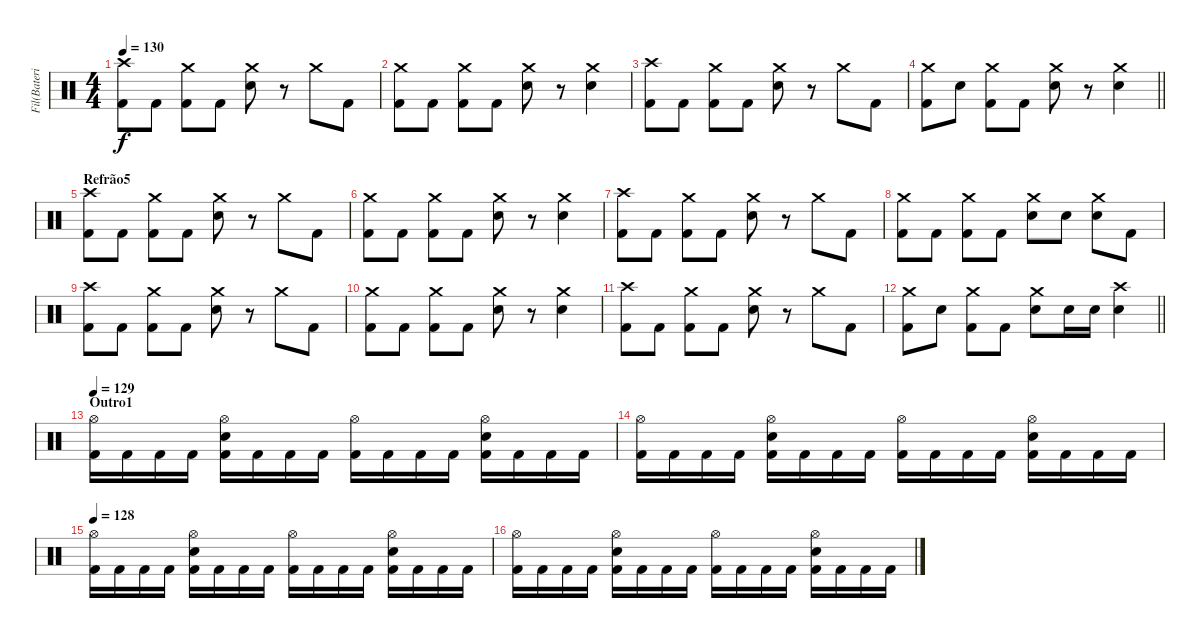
\track ("Fil(Bateria)" "Fil(Bateri") {instrument percussion}
\staff {score}
\articulation defaults
\ts (4 4)
\tempo 130
\clef neutral
\ks c
("Crash high (hit)" "Kick (hit) 2").8{dy f} "Kick (hit) 2".8 ("Crash medium (hit)" "Kick (hit) 2").8 "Kick (hit) 2".8 ("Crash medium (hit)" "Electric Snare (hit)").8 r.8 "Crash medium (hit)".8 "Kick (hit) 2".8 |
("Crash medium (hit)" "Kick (hit) 2").8 "Kick (hit) 2".8 ("Crash medium (hit)" "Kick (hit) 2").8 "Kick (hit) 2".8 ("Crash medium (hit)" "Electric Snare (hit)").8 r.8 ("Crash medium (hit)" "Electric Snare (hit)").4 |
("Crash high (hit)" "Kick (hit) 2").8 "Kick (hit) 2".8 ("Crash medium (hit)" "Kick (hit) 2").8 "Kick (hit) 2".8 ("Crash medium (hit)" "Electric Snare (hit)").8 r.8 "Crash medium (hit)".8 "Kick (hit) 2".8 |
\barLineRight lightlight
("Crash medium (hit)" "Kick (hit) 2").8 "Electric Snare (hit)".8 ("Crash medium (hit)" "Kick (hit) 2").8 "Kick (hit) 2".8 ("Crash medium (hit)" "Electric Snare (hit)").8 r.8 ("Crash medium (hit)" "Electric Snare (hit)").4 |
\section ("" "Refrão5")
("Crash high (hit)" "Kick (hit) 2").8 "Kick (hit) 2".8 ("Crash medium (hit)" "Kick (hit) 2").8 "Kick (hit) 2".8 ("Crash medium (hit)" "Electric Snare (hit)").8 r.8 "Crash medium (hit)".8 "Kick (hit) 2".8 |
("Crash medium (hit)" "Kick (hit) 2").8 "Kick (hit) 2".8 ("Crash medium (hit)" "Kick (hit) 2").8 "Kick (hit) 2".8 ("Crash medium (hit)" "Electric Snare (hit)").8 r.8 ("Crash medium (hit)" "Electric Snare (hit)").4 |
("Crash high (hit)" "Kick (hit) 2").8 "Kick (hit) 2".8 ("Crash medium (hit)" "Kick (hit) 2").8 "Kick (hit) 2".8 ("Crash medium (hit)" "Electric Snare (hit)").8 r.8 "Crash medium (hit)".8 "Kick (hit) 2".8 |
("Crash medium (hit)" "Kick (hit) 2").8 "Kick (hit) 2".8 ("Crash medium (hit)" "Kick (hit) 2").8 "Kick (hit) 2".8 ("Crash medium (hit)" "Electric Snare (hit)").8 "Electric Snare (hit)".8 ("Crash medium (hit)" "Electric Snare (hit)").8 "Kick (hit) 2".8 |
("Crash high (hit)" "Kick (hit) 2").8 "Kick (hit) 2".8 ("Crash medium (hit)" "Kick (hit) 2").8 "Kick (hit) 2".8 ("Crash medium (hit)" "Electric Snare (hit)").8 r.8 "Crash medium (hit)".8 "Kick (hit) 2".8 |
("Crash medium (hit)" "Kick (hit) 2").8 "Kick (hit) 2".8 ("Crash medium (hit)" "Kick (hit) 2").8 "Kick (hit) 2".8 ("Crash medium (hit)" "Electric Snare (hit)").8 r.8 ("Crash medium (hit)" "Electric Snare (hit)").4 |
("Crash high (hit)" "Kick (hit) 2").8 "Kick (hit) 2".8 ("Crash medium (hit)" "Kick (hit) 2").8 "Kick (hit) 2".8 ("Crash medium (hit)" "Electric Snare (hit)").8 r.8 "Crash medium (hit)".8 "Kick (hit) 2".8 |
\barLineRight lightlight
("Crash medium (hit)" "Kick (hit) 2").8 "Electric Snare (hit)".8 ("Crash medium (hit)" "Kick (hit) 2").8 "Kick (hit) 2".8 ("Crash medium (hit)" "Electric Snare (hit)").8 "Electric Snare (hit)".16 "Electric Snare (hit)".16 ("Crash high (hit)" "Electric Snare (hit)").4 |
\section ("" "Outro1")
\tempo 129
("Hi-Hat (open)" "Kick (hit) 2").16 "Kick (hit) 2".16 "Kick (hit) 2".16 "Kick (hit) 2".16 ("Hi-Hat (open)" "Electric Snare (hit)" "Kick (hit) 2").16 "Kick (hit) 2".16 "Kick (hit) 2".16 "Kick (hit) 2".16 ("Hi-Hat (open)" "Kick (hit) 2").16 "Kick (hit) 2".16 "Kick (hit) 2".16 "Kick (hit) 2".16 ("Hi-Hat (open)" "Electric Snare (hit)" "Kick (hit) 2").16 "Kick (hit) 2".16 "Kick (hit) 2".16 "Kick (hit) 2".16 |
("Hi-Hat (open)" "Kick (hit) 2").16 "Kick (hit) 2".16 "Kick (hit) 2".16 "Kick (hit) 2".16 ("Hi-Hat (open)" "Electric Snare (hit)" "Kick (hit) 2").16 "Kick (hit) 2".16 "Kick (hit) 2".16 "Kick (hit) 2".16 ("Hi-Hat (open)" "Kick (hit) 2").16 "Kick (hit) 2".16 "Kick (hit) 2".16 "Kick (hit) 2".16 ("Hi-Hat (open)" "Electric Snare (hit)" "Kick (hit) 2").16 "Kick (hit) 2".16 "Kick (hit) 2".16 "Kick (hit) 2".16 |
\tempo 128
("Hi-Hat (open)" "Kick (hit) 2").16 "Kick (hit) 2".16 "Kick (hit) 2".16 "Kick (hit) 2".16 ("Hi-Hat (open)" "Electric Snare (hit)" "Kick (hit) 2").16 "Kick (hit) 2".16 "Kick (hit) 2".16 "Kick (hit) 2".16 ("Hi-Hat (open)" "Kick (hit) 2").16 "Kick (hit) 2".16 "Kick (hit) 2".16 "Kick (hit) 2".16 ("Hi-Hat (open)" "Electric Snare (hit)" "Kick (hit) 2").16 "Kick (hit) 2".16 "Kick (hit) 2".16 "Kick (hit) 2".16 |
("Hi-Hat (open)" "Kick (hit) 2").16 "Kick (hit) 2".16 "Kick (hit) 2".16 "Kick (hit) 2".16 ("Hi-Hat (open)" "Electric Snare (hit)" "Kick (hit) 2").16 "Kick (hit) 2".16 "Kick (hit) 2".16 "Kick (hit) 2".16 ("Hi-Hat (open)" "Kick (hit) 2").16 "Kick (hit) 2".16 "Kick (hit) 2".16 "Kick (hit) 2".16 ("Hi-Hat (open)" "Electric Snare (hit)" "Kick (hit) 2").16 "Kick (hit) 2".16 "Kick (hit) 2".16 "Kick (hit) 2".16
